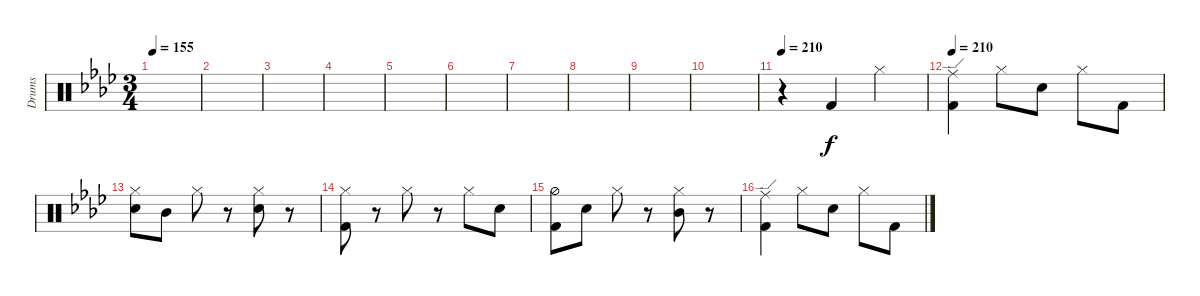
\defaultSystemsLayout 4
\bracketExtendMode nobrackets
\otherSystemsTrackNameOrientation horizontal
\track ("Drumkit" "Drums") {instrument percussion}
\staff {score}
\articulation defaults
\ts (3 4)
\tempo 155
\clef neutral
\ks ab
|
|
|
|
|
|
|
|
|
|
\tempo 210
r.4 "Kick (hit) 2"{acc forcenatural}.4 "Hi-Hat (closed)"{acc forcenatural}.4 |
\tempo 210
("Ride (edge)"{acc forcenatural} "Kick (hit) 2"{acc forcenatural}).4 "Hi-Hat (closed)"{acc forcenatural}.8 "Snare (hit) 2"{acc forcenatural}.8 "Hi-Hat (closed)"{acc forcenatural}.8 "Kick (hit) 2"{acc forcenatural}.8 |
("Hi-Hat (closed)"{acc forcenatural} "Snare (hit) 2"{acc forcenatural}).8 "Mid Tom (hit)"{acc forcenatural}.8 "Hi-Hat (closed)"{acc forcenatural}.8 r.8 ("Hi-Hat (closed)"{acc forcenatural} "Snare (hit) 2"{acc forcenatural}).8 r.8 |
("Kick (hit) 2"{acc forcenatural} "Hi-Hat (closed)"{acc forcenatural}).8 r.8 "Hi-Hat (closed)"{acc forcenatural}.8 r.8 "Hi-Hat (closed)"{acc forcenatural}.8 "Snare (hit) 2"{acc forcenatural}.8 |
("Hi-Hat (half)"{acc forcenatural} "Kick (hit) 2"{acc forcenatural}).8 "Snare (hit) 2"{acc forcenatural}.8 "Hi-Hat (closed)"{acc forcenatural}.8 r.8 ("Mid Tom (hit)"{acc forcenatural} "Hi-Hat (closed)"{acc forcenatural}).8 r.8 |
("Ride (edge)"{acc forcenatural} "Kick (hit) 2"{acc forcenatural}).4 "Hi-Hat (closed)"{acc forcenatural}.8 "Snare (hit) 2"{acc forcenatural}.8 "Hi-Hat (closed)"{acc forcenatural}.8 "Kick (hit) 2"{acc forcenatural}.8
